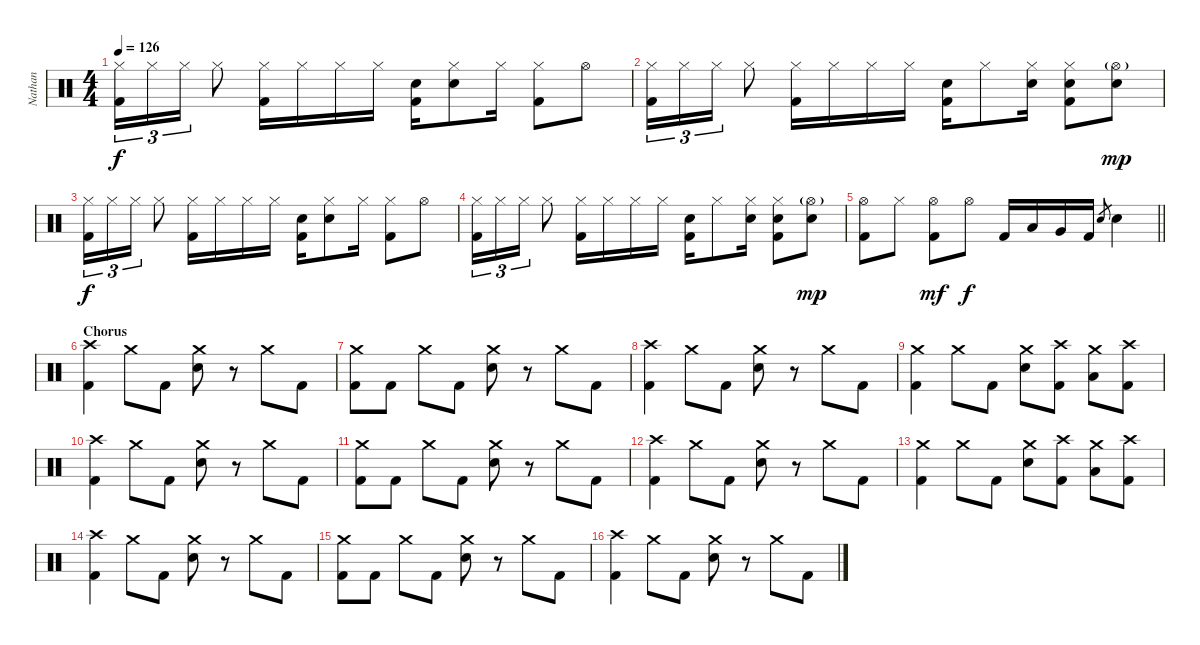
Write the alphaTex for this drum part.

\track ("Nathan" "Nathan") {instrument percussion}
\staff {score}
\articulation defaults
\ts (4 4)
\tempo 126
\clef neutral
\ks c
("Hi-Hat (closed)" "Kick (hit) 2").16{tu (3 2) dy f} "Hi-Hat (closed)".16{tu (3 2)} "Hi-Hat (closed)".16{tu (3 2)} "Hi-Hat (closed)".8 ("Hi-Hat (closed)" "Kick (hit) 2").16 "Hi-Hat (closed)".16 "Hi-Hat (closed)".16 "Hi-Hat (closed)".16 ("Electric Snare (hit)" "Kick (hit) 2").16 ("Hi-Hat (closed)" "Electric Snare (hit)").8 "Hi-Hat (closed)".16 ("Hi-Hat (closed)" "Kick (hit) 2").8 "Hi-Hat (open)".8 |
("Hi-Hat (closed)" "Kick (hit) 2").16{tu (3 2)} "Hi-Hat (closed)".16{tu (3 2)} "Hi-Hat (closed)".16{tu (3 2)} "Hi-Hat (closed)".8 ("Hi-Hat (closed)" "Kick (hit) 2").16 "Hi-Hat (closed)".16 "Hi-Hat (closed)".16 "Hi-Hat (closed)".16 ("Electric Snare (hit)" "Kick (hit) 2").16 "Hi-Hat (closed)".8 ("Hi-Hat (closed)" "Electric Snare (hit)").16 ("Hi-Hat (closed)" "Electric Snare (hit)" "Kick (hit) 2").8 ("Hi-Hat (open)"{g} "Electric Snare (hit)").8{dy mp} |
("Hi-Hat (closed)" "Kick (hit) 2").16{tu (3 2) dy f} "Hi-Hat (closed)".16{tu (3 2)} "Hi-Hat (closed)".16{tu (3 2)} "Hi-Hat (closed)".8 ("Hi-Hat (closed)" "Kick (hit) 2").16 "Hi-Hat (closed)".16 "Hi-Hat (closed)".16 "Hi-Hat (closed)".16 ("Electric Snare (hit)" "Kick (hit) 2").16 ("Hi-Hat (closed)" "Electric Snare (hit)").8 "Hi-Hat (closed)".16 ("Hi-Hat (closed)" "Kick (hit) 2").8 "Hi-Hat (open)".8 |
("Hi-Hat (closed)" "Kick (hit) 2").16{tu (3 2)} "Hi-Hat (closed)".16{tu (3 2)} "Hi-Hat (closed)".16{tu (3 2)} "Hi-Hat (closed)".8 ("Hi-Hat (closed)" "Kick (hit) 2").16 "Hi-Hat (closed)".16 "Hi-Hat (closed)".16 "Hi-Hat (closed)".16 ("Electric Snare (hit)" "Kick (hit) 2").16 "Hi-Hat (closed)".8 ("Hi-Hat (closed)" "Electric Snare (hit)").16 ("Hi-Hat (closed)" "Electric Snare (hit)" "Kick (hit) 2").8 ("Hi-Hat (open)"{g} "Electric Snare (hit)").8{dy mp} |
\barLineRight lightlight
("Hi-Hat (open)" "Kick (hit) 2").8 "Hi-Hat (closed)".8 ("Hi-Hat (open)" "Kick (hit) 2").8{dy mf} "Hi-Hat (open)".8{dy f} "Kick (hit) 2".16 "Low Tom (hit)".16 "Very Low Tom (hit)".16 "Kick (hit) 2".16 "Electric Snare (hit)".8{gr} "Electric Snare (hit)".4 |
\section ("" "Chorus")
("Crash high (hit)" "Kick (hit) 2").4 "Crash medium (hit)".8 "Kick (hit) 2".8 ("Crash medium (hit)" "Electric Snare (hit)").8 r.8 "Crash medium (hit)".8 "Kick (hit) 2".8 |
("Crash medium (hit)" "Kick (hit) 2").8 "Kick (hit) 2".8 "Crash medium (hit)".8 "Kick (hit) 2".8 ("Crash medium (hit)" "Electric Snare (hit)").8 r.8 "Crash medium (hit)".8 "Kick (hit) 2".8 |
("Crash high (hit)" "Kick (hit) 2").4 "Crash medium (hit)".8 "Kick (hit) 2".8 ("Crash medium (hit)" "Electric Snare (hit)").8 r.8 "Crash medium (hit)".8 "Kick (hit) 2".8 |
("Crash medium (hit)" "Kick (hit) 2").4 "Crash medium (hit)".8 "Kick (hit) 2".8 ("Crash medium (hit)" "Electric Snare (hit)").8 ("Crash high (hit)" "Kick (hit) 2").8 ("Crash medium (hit)" "Low Floor Tom (hit)").8 ("Crash high (hit)" "Kick (hit) 2").8 |
("Crash high (hit)" "Kick (hit) 2").4 "Crash medium (hit)".8 "Kick (hit) 2".8 ("Crash medium (hit)" "Electric Snare (hit)").8 r.8 "Crash medium (hit)".8 "Kick (hit) 2".8 |
("Crash medium (hit)" "Kick (hit) 2").8 "Kick (hit) 2".8 "Crash medium (hit)".8 "Kick (hit) 2".8 ("Crash medium (hit)" "Electric Snare (hit)").8 r.8 "Crash medium (hit)".8 "Kick (hit) 2".8 |
("Crash high (hit)" "Kick (hit) 2").4 "Crash medium (hit)".8 "Kick (hit) 2".8 ("Crash medium (hit)" "Electric Snare (hit)").8 r.8 "Crash medium (hit)".8 "Kick (hit) 2".8 |
("Crash medium (hit)" "Kick (hit) 2").4 "Crash medium (hit)".8 "Kick (hit) 2".8 ("Crash medium (hit)" "Electric Snare (hit)").8 ("Crash high (hit)" "Kick (hit) 2").8 ("Crash medium (hit)" "Low Floor Tom (hit)").8 ("Crash high (hit)" "Kick (hit) 2").8 |
("Crash high (hit)" "Kick (hit) 2").4 "Crash medium (hit)".8 "Kick (hit) 2".8 ("Crash medium (hit)" "Electric Snare (hit)").8 r.8 "Crash medium (hit)".8 "Kick (hit) 2".8 |
("Crash medium (hit)" "Kick (hit) 2").8 "Kick (hit) 2".8 "Crash medium (hit)".8 "Kick (hit) 2".8 ("Crash medium (hit)" "Electric Snare (hit)").8 r.8 "Crash medium (hit)".8 "Kick (hit) 2".8 |
("Crash high (hit)" "Kick (hit) 2").4 "Crash medium (hit)".8 "Kick (hit) 2".8 ("Crash medium (hit)" "Electric Snare (hit)").8 r.8 "Crash medium (hit)".8 "Kick (hit) 2".8
